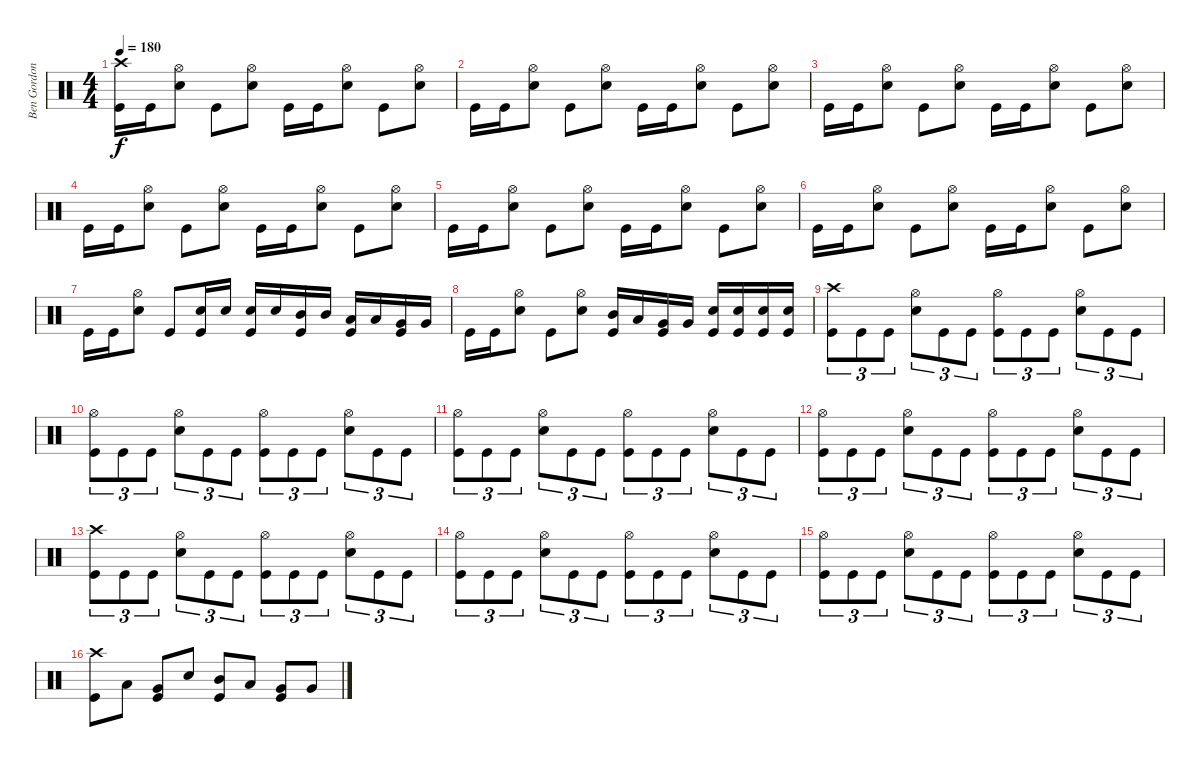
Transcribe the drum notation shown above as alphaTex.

\track ("Ben Gordon" "Ben Gordon") {instrument percussion}
\staff {score}
\articulation defaults
\ts (4 4)
\tempo 180
\clef neutral
\ks c
("Crash high (hit)" "Kick (hit)").16{dy f} "Kick (hit)".16 ("Hi-Hat (open)" "Electric Snare (hit)").8 "Kick (hit)".8 ("Hi-Hat (open)" "Electric Snare (hit)").8 "Kick (hit)".16 "Kick (hit)".16 ("Hi-Hat (open)" "Electric Snare (hit)").8 "Kick (hit)".8 ("Hi-Hat (open)" "Electric Snare (hit)").8 |
"Kick (hit)".16 "Kick (hit)".16 ("Hi-Hat (open)" "Electric Snare (hit)").8 "Kick (hit)".8 ("Hi-Hat (open)" "Electric Snare (hit)").8 "Kick (hit)".16 "Kick (hit)".16 ("Hi-Hat (open)" "Electric Snare (hit)").8 "Kick (hit)".8 ("Hi-Hat (open)" "Electric Snare (hit)").8 |
"Kick (hit)".16 "Kick (hit)".16 ("Hi-Hat (open)" "Electric Snare (hit)").8 "Kick (hit)".8 ("Hi-Hat (open)" "Electric Snare (hit)").8 "Kick (hit)".16 "Kick (hit)".16 ("Hi-Hat (open)" "Electric Snare (hit)").8 "Kick (hit)".8 ("Hi-Hat (open)" "Electric Snare (hit)").8 |
"Kick (hit)".16 "Kick (hit)".16 ("Hi-Hat (open)" "Electric Snare (hit)").8 "Kick (hit)".8 ("Hi-Hat (open)" "Electric Snare (hit)").8 "Kick (hit)".16 "Kick (hit)".16 ("Hi-Hat (open)" "Electric Snare (hit)").8 "Kick (hit)".8 ("Hi-Hat (open)" "Electric Snare (hit)").8 |
"Kick (hit)".16 "Kick (hit)".16 ("Hi-Hat (open)" "Electric Snare (hit)").8 "Kick (hit)".8 ("Hi-Hat (open)" "Electric Snare (hit)").8 "Kick (hit)".16 "Kick (hit)".16 ("Hi-Hat (open)" "Electric Snare (hit)").8 "Kick (hit)".8 ("Hi-Hat (open)" "Electric Snare (hit)").8 |
"Kick (hit)".16 "Kick (hit)".16 ("Hi-Hat (open)" "Electric Snare (hit)").8 "Kick (hit)".8 ("Hi-Hat (open)" "Electric Snare (hit)").8 "Kick (hit)".16 "Kick (hit)".16 ("Hi-Hat (open)" "Electric Snare (hit)").8 "Kick (hit)".8 ("Hi-Hat (open)" "Electric Snare (hit)").8 |
"Kick (hit)".16 "Kick (hit)".16 ("Hi-Hat (open)" "Electric Snare (hit)").8 "Kick (hit)".8 ("Electric Snare (hit)" "Kick (hit)").16 "Electric Snare (hit)".16 ("Electric Snare (hit)" "Kick (hit)").16 "Electric Snare (hit)".16 ("Mid Tom (hit)" "Kick (hit)").16 "Mid Tom (hit)".16 ("Low Tom (hit)" "Kick (hit)").16 "Low Tom (hit)".16 ("Very Low Tom (hit)" "Kick (hit)").16 "Very Low Tom (hit)".16 |
"Kick (hit)".16 "Kick (hit)".16 ("Hi-Hat (open)" "Electric Snare (hit)").8 "Kick (hit)".8 ("Hi-Hat (open)" "Electric Snare (hit)").8 ("Mid Tom (hit)" "Kick (hit)").16 "Low Tom (hit)".16 ("Very Low Tom (hit)" "Kick (hit)").16 "Very Low Tom (hit)".16 ("Electric Snare (hit)" "Kick (hit)").16 ("Electric Snare (hit)" "Kick (hit)").16 ("Electric Snare (hit)" "Kick (hit)").16 ("Electric Snare (hit)" "Kick (hit)").16 |
("Crash high (hit)" "Kick (hit)").8{tu (3 2)} "Kick (hit)".8{tu (3 2)} "Kick (hit)".8{tu (3 2)} ("Hi-Hat (open)" "Electric Snare (hit)").8{tu (3 2)} "Kick (hit)".8{tu (3 2)} "Kick (hit)".8{tu (3 2)} ("Hi-Hat (open)" "Kick (hit)").8{tu (3 2)} "Kick (hit)".8{tu (3 2)} "Kick (hit)".8{tu (3 2)} ("Hi-Hat (open)" "Electric Snare (hit)").8{tu (3 2)} "Kick (hit)".8{tu (3 2)} "Kick (hit)".8{tu (3 2)} |
("Hi-Hat (open)" "Kick (hit)").8{tu (3 2)} "Kick (hit)".8{tu (3 2)} "Kick (hit)".8{tu (3 2)} ("Hi-Hat (open)" "Electric Snare (hit)").8{tu (3 2)} "Kick (hit)".8{tu (3 2)} "Kick (hit)".8{tu (3 2)} ("Hi-Hat (open)" "Kick (hit)").8{tu (3 2)} "Kick (hit)".8{tu (3 2)} "Kick (hit)".8{tu (3 2)} ("Hi-Hat (open)" "Electric Snare (hit)").8{tu (3 2)} "Kick (hit)".8{tu (3 2)} "Kick (hit)".8{tu (3 2)} |
("Hi-Hat (open)" "Kick (hit)").8{tu (3 2)} "Kick (hit)".8{tu (3 2)} "Kick (hit)".8{tu (3 2)} ("Hi-Hat (open)" "Electric Snare (hit)").8{tu (3 2)} "Kick (hit)".8{tu (3 2)} "Kick (hit)".8{tu (3 2)} ("Hi-Hat (open)" "Kick (hit)").8{tu (3 2)} "Kick (hit)".8{tu (3 2)} "Kick (hit)".8{tu (3 2)} ("Hi-Hat (open)" "Electric Snare (hit)").8{tu (3 2)} "Kick (hit)".8{tu (3 2)} "Kick (hit)".8{tu (3 2)} |
("Hi-Hat (open)" "Kick (hit)").8{tu (3 2)} "Kick (hit)".8{tu (3 2)} "Kick (hit)".8{tu (3 2)} ("Hi-Hat (open)" "Electric Snare (hit)").8{tu (3 2)} "Kick (hit)".8{tu (3 2)} "Kick (hit)".8{tu (3 2)} ("Hi-Hat (open)" "Kick (hit)").8{tu (3 2)} "Kick (hit)".8{tu (3 2)} "Kick (hit)".8{tu (3 2)} ("Hi-Hat (open)" "Electric Snare (hit)").8{tu (3 2)} "Kick (hit)".8{tu (3 2)} "Kick (hit)".8{tu (3 2)} |
("Crash high (hit)" "Kick (hit)").8{tu (3 2)} "Kick (hit)".8{tu (3 2)} "Kick (hit)".8{tu (3 2)} ("Hi-Hat (open)" "Electric Snare (hit)").8{tu (3 2)} "Kick (hit)".8{tu (3 2)} "Kick (hit)".8{tu (3 2)} ("Hi-Hat (open)" "Kick (hit)").8{tu (3 2)} "Kick (hit)".8{tu (3 2)} "Kick (hit)".8{tu (3 2)} ("Hi-Hat (open)" "Electric Snare (hit)").8{tu (3 2)} "Kick (hit)".8{tu (3 2)} "Kick (hit)".8{tu (3 2)} |
("Hi-Hat (open)" "Kick (hit)").8{tu (3 2)} "Kick (hit)".8{tu (3 2)} "Kick (hit)".8{tu (3 2)} ("Hi-Hat (open)" "Electric Snare (hit)").8{tu (3 2)} "Kick (hit)".8{tu (3 2)} "Kick (hit)".8{tu (3 2)} ("Hi-Hat (open)" "Kick (hit)").8{tu (3 2)} "Kick (hit)".8{tu (3 2)} "Kick (hit)".8{tu (3 2)} ("Hi-Hat (open)" "Electric Snare (hit)").8{tu (3 2)} "Kick (hit)".8{tu (3 2)} "Kick (hit)".8{tu (3 2)} |
("Hi-Hat (open)" "Kick (hit)").8{tu (3 2)} "Kick (hit)".8{tu (3 2)} "Kick (hit)".8{tu (3 2)} ("Hi-Hat (open)" "Electric Snare (hit)").8{tu (3 2)} "Kick (hit)".8{tu (3 2)} "Kick (hit)".8{tu (3 2)} ("Hi-Hat (open)" "Kick (hit)").8{tu (3 2)} "Kick (hit)".8{tu (3 2)} "Kick (hit)".8{tu (3 2)} ("Hi-Hat (open)" "Electric Snare (hit)").8{tu (3 2)} "Kick (hit)".8{tu (3 2)} "Kick (hit)".8{tu (3 2)} |
("Crash high (hit)" "Kick (hit)").8 "Low Tom (hit)".8 ("Very Low Tom (hit)" "Kick (hit)").8 "Electric Snare (hit)".8 ("Mid Tom (hit)" "Kick (hit)").8 "Low Tom (hit)".8 ("Very Low Tom (hit)" "Kick (hit)").8 "Very Low Tom (hit)".8
